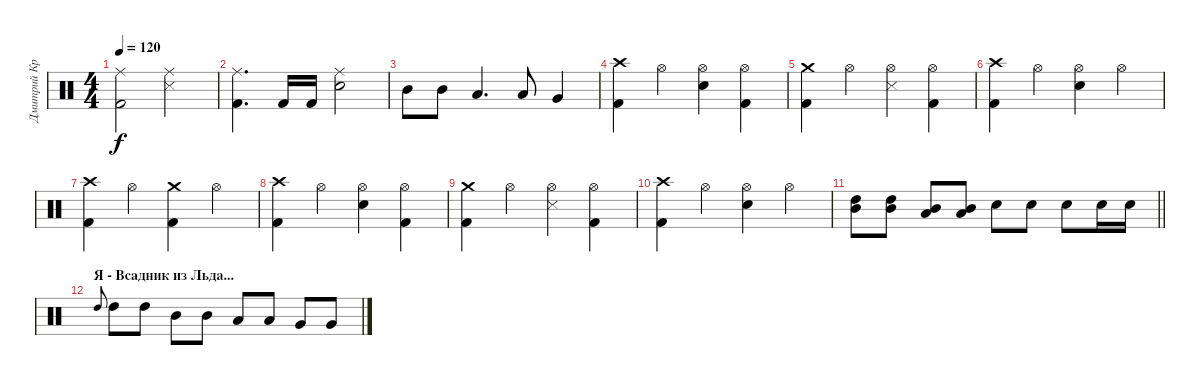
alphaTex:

\track ("Дмитрий Кривенков       (Ударные)" "Дмитрий Кр") {instrument percussion}
\staff {score}
\articulation defaults
\ts (4 4)
\tempo 120
\clef neutral
\ks c
("Ride (middle)" "Kick (hit) 2").2{dy f} ("Snare (side stick) 3" "Ride (middle)").2 |
("Ride (middle)" "Kick (hit) 2").4{d} "Kick (hit) 2".16 "Kick (hit) 2".16 ("Ride (middle)" "Electric Snare (hit)").2 |
"Mid Tom (hit)".8 "Mid Tom (hit)".8 "Low Tom (hit)".4{d} "Low Tom (hit)".8 "Very Low Tom (hit)".4 |
("Crash high (hit)" "Kick (hit) 2").4 "Hi-Hat (open)".4 ("Hi-Hat (open)" "Electric Snare (hit)").4 ("Hi-Hat (open)" "Kick (hit) 2").4 |
("Crash medium (hit)" "Kick (hit) 2").4 "Hi-Hat (open)".4 ("Snare (side stick) 3" "Hi-Hat (open)").4 ("Hi-Hat (open)" "Kick (hit) 2").4 |
("Crash high (hit)" "Kick (hit) 2").4 "Hi-Hat (open)".4 ("Hi-Hat (open)" "Electric Snare (hit)").4 "Hi-Hat (open)".4 |
("Crash high (hit)" "Kick (hit) 2").4 "Hi-Hat (open)".4 ("Crash medium (hit)" "Kick (hit) 2").4 "Hi-Hat (open)".4 |
("Crash high (hit)" "Kick (hit) 2").4 "Hi-Hat (open)".4 ("Hi-Hat (open)" "Electric Snare (hit)").4 ("Hi-Hat (open)" "Kick (hit) 2").4 |
("Crash medium (hit)" "Kick (hit) 2").4 "Hi-Hat (open)".4 ("Snare (side stick) 3" "Hi-Hat (open)").4 ("Hi-Hat (open)" "Kick (hit) 2").4 |
("Crash high (hit)" "Kick (hit) 2").4 "Hi-Hat (open)".4 ("Hi-Hat (open)" "Electric Snare (hit)").4 "Hi-Hat (open)".4 |
\barLineRight lightlight
("High Tom (hit)" "Mid Tom (hit)").8 ("High Tom (hit)" "Mid Tom (hit)").8 ("Mid Tom (hit)" "Low Tom (hit)").8 ("Mid Tom (hit)" "Low Tom (hit)").8 "Electric Snare (hit)".8 "Electric Snare (hit)".8 "Electric Snare (hit)".8 "Electric Snare (hit)".16 "Electric Snare (hit)".16 |
\section ("" "Я - Всадник из Льда...")
"High Tom (hit)".8{gr onbeat} "High Tom (hit)".8 "High Tom (hit)".8 "Mid Tom (hit)".8 "Mid Tom (hit)".8 "Low Tom (hit)".8 "Low Tom (hit)".8 "Very Low Tom (hit)".8 "Very Low Tom (hit)".8
